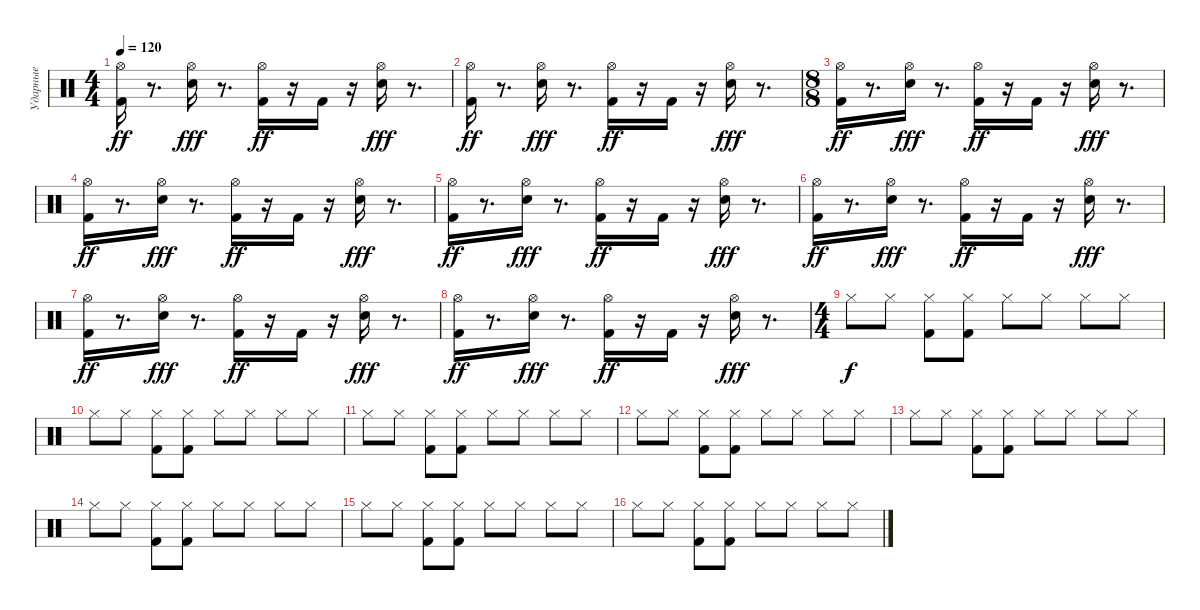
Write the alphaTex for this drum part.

\track ("Ударные" "Ударные") {instrument percussion}
\staff {score}
\articulation defaults
\ts (4 4)
\tempo 120
\clef neutral
\ks c
("Kick (hit) 2" "Hi-Hat (open)").16{dy ff} r.8{d} ("Snare (hit) 2" "Hi-Hat (open)").16{dy fff} r.8{d} ("Kick (hit) 2" "Hi-Hat (open)").16{dy ff} r.16 "Kick (hit) 2".16 r.16 ("Snare (hit) 2" "Hi-Hat (open)").16{dy fff} r.8{d} |
("Kick (hit) 2" "Hi-Hat (open)").16{dy ff} r.8{d} ("Snare (hit) 2" "Hi-Hat (open)").16{dy fff} r.8{d} ("Kick (hit) 2" "Hi-Hat (open)").16{dy ff} r.16 "Kick (hit) 2".16 r.16 ("Snare (hit) 2" "Hi-Hat (open)").16{dy fff} r.8{d} |
\ts (8 8)
("Kick (hit) 2" "Hi-Hat (open)").16{dy ff} r.8{d} ("Snare (hit) 2" "Hi-Hat (open)").16{dy fff} r.8{d} ("Kick (hit) 2" "Hi-Hat (open)").16{dy ff} r.16 "Kick (hit) 2".16 r.16 ("Snare (hit) 2" "Hi-Hat (open)").16{dy fff} r.8{d} |
("Kick (hit) 2" "Hi-Hat (open)").16{dy ff} r.8{d} ("Snare (hit) 2" "Hi-Hat (open)").16{dy fff} r.8{d} ("Kick (hit) 2" "Hi-Hat (open)").16{dy ff} r.16 "Kick (hit) 2".16 r.16 ("Snare (hit) 2" "Hi-Hat (open)").16{dy fff} r.8{d} |
("Kick (hit) 2" "Hi-Hat (open)").16{dy ff} r.8{d} ("Snare (hit) 2" "Hi-Hat (open)").16{dy fff} r.8{d} ("Kick (hit) 2" "Hi-Hat (open)").16{dy ff} r.16 "Kick (hit) 2".16 r.16 ("Snare (hit) 2" "Hi-Hat (open)").16{dy fff} r.8{d} |
("Kick (hit) 2" "Hi-Hat (open)").16{dy ff} r.8{d} ("Snare (hit) 2" "Hi-Hat (open)").16{dy fff} r.8{d} ("Kick (hit) 2" "Hi-Hat (open)").16{dy ff} r.16 "Kick (hit) 2".16 r.16 ("Snare (hit) 2" "Hi-Hat (open)").16{dy fff} r.8{d} |
("Kick (hit) 2" "Hi-Hat (open)").16{dy ff} r.8{d} ("Snare (hit) 2" "Hi-Hat (open)").16{dy fff} r.8{d} ("Kick (hit) 2" "Hi-Hat (open)").16{dy ff} r.16 "Kick (hit) 2".16 r.16 ("Snare (hit) 2" "Hi-Hat (open)").16{dy fff} r.8{d} |
("Kick (hit) 2" "Hi-Hat (open)").16{dy ff} r.8{d} ("Snare (hit) 2" "Hi-Hat (open)").16{dy fff} r.8{d} ("Kick (hit) 2" "Hi-Hat (open)").16{dy ff} r.16 "Kick (hit) 2".16 r.16 ("Snare (hit) 2" "Hi-Hat (open)").16{dy fff} r.8{d} |
\ts (4 4)
"Hi-Hat (closed)".8{dy f} "Hi-Hat (closed)".8 ("Hi-Hat (closed)" "Kick (hit) 2").8 ("Hi-Hat (closed)" "Kick (hit) 2").8 "Hi-Hat (closed)".8 "Hi-Hat (closed)".8 "Hi-Hat (closed)".8 "Hi-Hat (closed)".8 |
"Hi-Hat (closed)".8 "Hi-Hat (closed)".8 ("Hi-Hat (closed)" "Kick (hit) 2").8 ("Hi-Hat (closed)" "Kick (hit) 2").8 "Hi-Hat (closed)".8 "Hi-Hat (closed)".8 "Hi-Hat (closed)".8 "Hi-Hat (closed)".8 |
"Hi-Hat (closed)".8 "Hi-Hat (closed)".8 ("Hi-Hat (closed)" "Kick (hit) 2").8 ("Hi-Hat (closed)" "Kick (hit) 2").8 "Hi-Hat (closed)".8 "Hi-Hat (closed)".8 "Hi-Hat (closed)".8 "Hi-Hat (closed)".8 |
"Hi-Hat (closed)".8 "Hi-Hat (closed)".8 ("Hi-Hat (closed)" "Kick (hit) 2").8 ("Hi-Hat (closed)" "Kick (hit) 2").8 "Hi-Hat (closed)".8 "Hi-Hat (closed)".8 "Hi-Hat (closed)".8 "Hi-Hat (closed)".8 |
"Hi-Hat (closed)".8 "Hi-Hat (closed)".8 ("Hi-Hat (closed)" "Kick (hit) 2").8 ("Hi-Hat (closed)" "Kick (hit) 2").8 "Hi-Hat (closed)".8 "Hi-Hat (closed)".8 "Hi-Hat (closed)".8 "Hi-Hat (closed)".8 |
"Hi-Hat (closed)".8 "Hi-Hat (closed)".8 ("Hi-Hat (closed)" "Kick (hit) 2").8 ("Hi-Hat (closed)" "Kick (hit) 2").8 "Hi-Hat (closed)".8 "Hi-Hat (closed)".8 "Hi-Hat (closed)".8 "Hi-Hat (closed)".8 |
"Hi-Hat (closed)".8 "Hi-Hat (closed)".8 ("Hi-Hat (closed)" "Kick (hit) 2").8 ("Hi-Hat (closed)" "Kick (hit) 2").8 "Hi-Hat (closed)".8 "Hi-Hat (closed)".8 "Hi-Hat (closed)".8 "Hi-Hat (closed)".8 |
"Hi-Hat (closed)".8 "Hi-Hat (closed)".8 ("Hi-Hat (closed)" "Kick (hit) 2").8 ("Hi-Hat (closed)" "Kick (hit) 2").8 "Hi-Hat (closed)".8 "Hi-Hat (closed)".8 "Hi-Hat (closed)".8 "Hi-Hat (closed)".8
